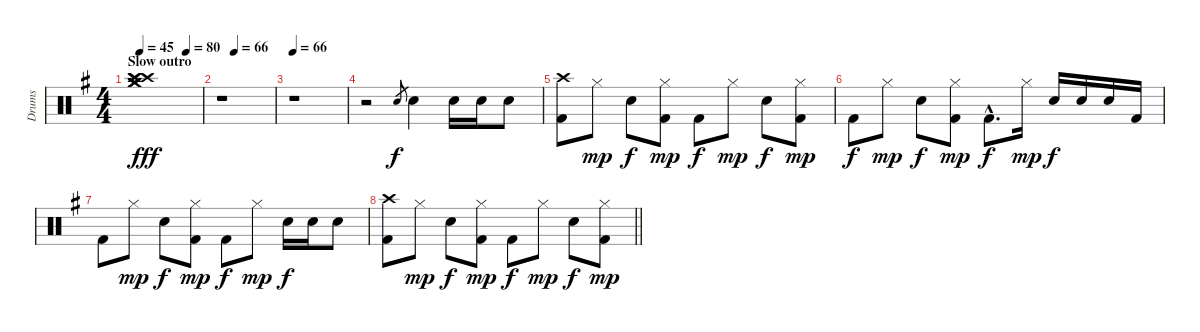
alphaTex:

\track ("Drums" "Drums") {instrument percussion}
\staff {score}
\articulation defaults
\ts (4 4)
\section ("" "Slow outro")
\tempo 45
\tempo (80 0.75)
\clef neutral
\ks g
("Crash high (hit)" "Crash high (hit)" "Crash high (hit)" "Crash medium (hit)" "Crash medium (hit)" "Crash medium (hit)").1{dy fff} |
\tempo (66 0.25)
r.1 |
\tempo 66
r.1 |
r.2{volume 12} "Snare (hit) 2".8{gr dy f} "Snare (hit) 2".4 "Snare (hit) 2".16 "Snare (hit) 2".16 "Snare (hit) 2".8 |
("Crash high (hit)" "Kick (hit) 2").8 "Hi-Hat (closed)".8{dy mp} "Snare (hit) 2".8{dy f} ("Hi-Hat (closed)" "Kick (hit) 2").8{dy mp} "Kick (hit) 2".8{dy f} "Hi-Hat (closed)".8{dy mp} "Snare (hit) 2".8{dy f} ("Hi-Hat (closed)" "Kick (hit) 2").8{dy mp} |
"Kick (hit) 2".8{dy f} "Hi-Hat (closed)".8{dy mp} "Snare (hit) 2".8{dy f} ("Hi-Hat (closed)" "Kick (hit) 2").8{dy mp} "Kick (hit) 2"{hac}.8{d dy f} "Hi-Hat (closed)".16{dy mp} "Snare (hit) 2".16{dy f} "Snare (hit) 2".16 "Snare (hit) 2".16 "Kick (hit) 2".16 |
"Kick (hit) 2".8{volume 0} "Hi-Hat (closed)".8{dy mp} "Snare (hit) 2".8{dy f} ("Hi-Hat (closed)" "Kick (hit) 2").8{dy mp} "Kick (hit) 2".8{dy f} "Hi-Hat (closed)".8{dy mp} "Snare (hit) 2".16{dy f} "Snare (hit) 2".16 "Snare (hit) 2".8 |
\barLineRight lightlight
("Crash high (hit)" "Kick (hit) 2").8 "Hi-Hat (closed)".8{dy mp} "Snare (hit) 2".8{dy f} ("Hi-Hat (closed)" "Kick (hit) 2").8{dy mp} "Kick (hit) 2".8{dy f} "Hi-Hat (closed)".8{dy mp} "Snare (hit) 2".8{dy f} ("Hi-Hat (closed)" "Kick (hit) 2").8{dy mp}
